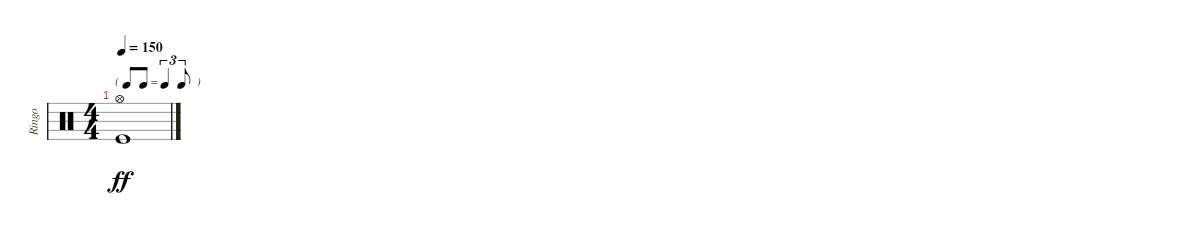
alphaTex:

\track ("Ringo" "Ringo") {instrument percussion}
\staff {score}
\articulation defaults
\ts (4 4)
\tf triplet8th
\tempo 150
\clef neutral
\ks c
("Hi-Hat (open)" "Kick (hit)").1{dy ff}
